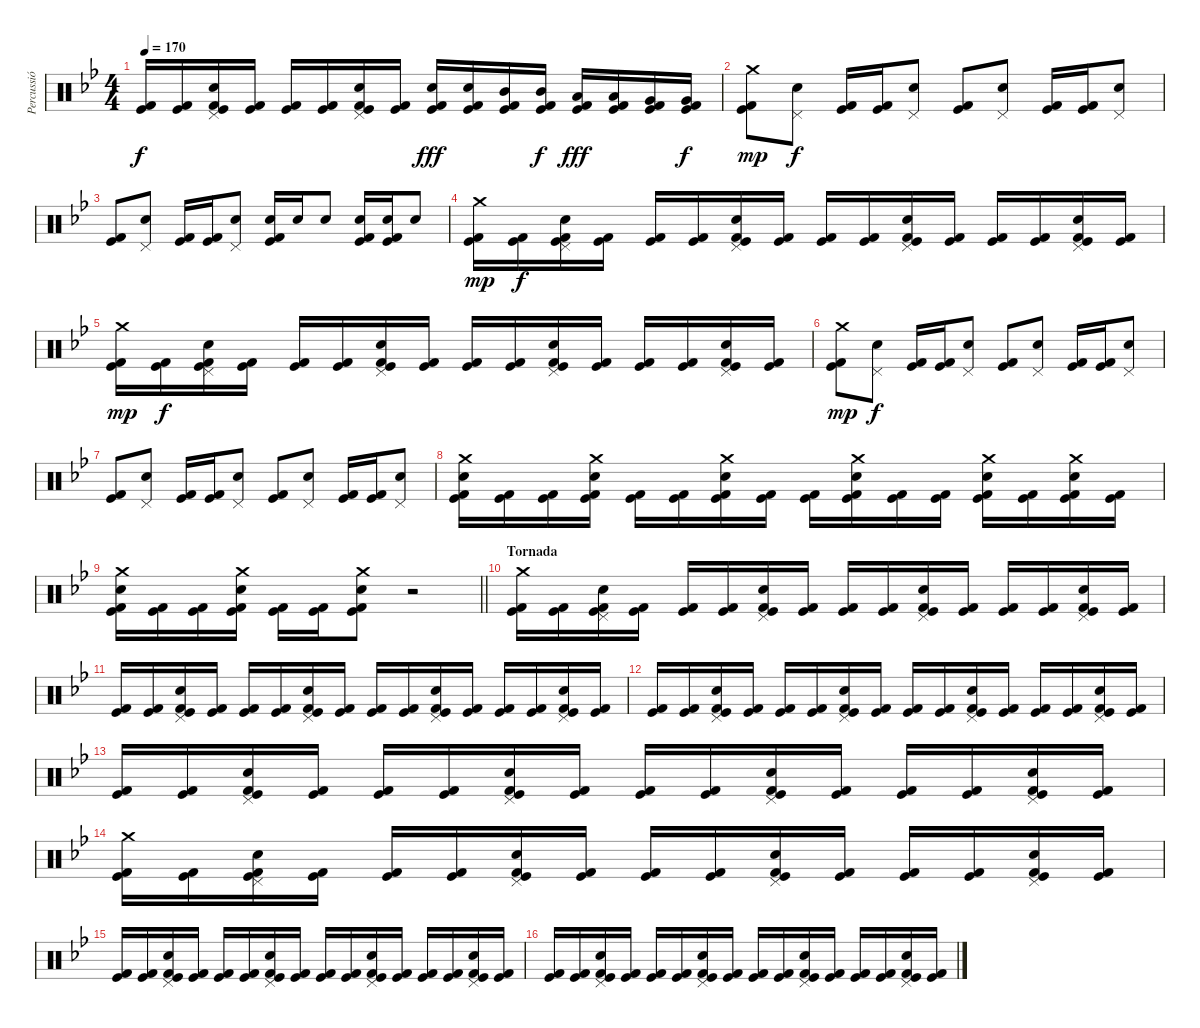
\track ("Percussió" "Percussió") {instrument percussion}
\staff {score}
\articulation defaults
\ts (4 4)
\tempo 170
\clef neutral
\ks gminor
("Kick (hit)" "Kick (hit) 2").16{dy f} ("Kick (hit)" "Kick (hit) 2").16 ("Pedal Hi-Hat (hit)" "Electric Snare (hit)" "Kick (hit)" "Kick (hit) 2").16 ("Kick (hit)" "Kick (hit) 2").16 ("Kick (hit)" "Kick (hit) 2").16 ("Kick (hit)" "Kick (hit) 2").16 ("Pedal Hi-Hat (hit)" "Electric Snare (hit)" "Kick (hit)" "Kick (hit) 2").16 ("Kick (hit)" "Kick (hit) 2").16 ("Electric Snare (hit)" "Kick (hit)" "Kick (hit) 2").16{dy fff} ("Electric Snare (hit)" "Kick (hit)" "Kick (hit) 2").16 ("Mid Tom (hit)" "Kick (hit)" "Kick (hit) 2").16 ("Mid Tom (hit)" "Kick (hit)" "Kick (hit) 2").16{dy f} ("Low Tom (hit)" "Kick (hit)" "Kick (hit) 2").16{dy fff} ("Low Tom (hit)" "Kick (hit)" "Kick (hit) 2").16 ("Very Low Tom (hit)" "Kick (hit)" "Kick (hit) 2").16 ("Very Low Tom (hit)" "Kick (hit)" "Kick (hit) 2").16{dy f} |
("Crash medium (hit)" "Kick (hit)" "Kick (hit) 2").8{dy mp} ("Pedal Hi-Hat (hit)" "Electric Snare (hit)").8{dy f} ("Kick (hit)" "Kick (hit) 2").16 ("Kick (hit)" "Kick (hit) 2").16 ("Pedal Hi-Hat (hit)" "Electric Snare (hit)").8 ("Kick (hit)" "Kick (hit) 2").8 ("Pedal Hi-Hat (hit)" "Electric Snare (hit)").8 ("Kick (hit)" "Kick (hit) 2").16 ("Kick (hit)" "Kick (hit) 2").16 ("Pedal Hi-Hat (hit)" "Electric Snare (hit)").8 |
("Kick (hit)" "Kick (hit) 2").8 ("Pedal Hi-Hat (hit)" "Electric Snare (hit)").8 ("Kick (hit)" "Kick (hit) 2").16 ("Kick (hit)" "Kick (hit) 2").16 ("Pedal Hi-Hat (hit)" "Electric Snare (hit)").8 ("Electric Snare (hit)" "Kick (hit)" "Kick (hit) 2").16 "Electric Snare (hit)".16 "Electric Snare (hit)".8 ("Electric Snare (hit)" "Kick (hit)" "Kick (hit) 2").16 ("Electric Snare (hit)" "Kick (hit)" "Kick (hit) 2").16 "Electric Snare (hit)".8 |
("Crash medium (hit)" "Kick (hit)" "Kick (hit) 2").16{dy mp} ("Kick (hit)" "Kick (hit) 2").16{dy f} ("Pedal Hi-Hat (hit)" "Electric Snare (hit)" "Kick (hit)" "Kick (hit) 2").16 ("Kick (hit)" "Kick (hit) 2").16 ("Kick (hit)" "Kick (hit) 2").16 ("Kick (hit)" "Kick (hit) 2").16 ("Pedal Hi-Hat (hit)" "Electric Snare (hit)" "Kick (hit)" "Kick (hit) 2").16 ("Kick (hit)" "Kick (hit) 2").16 ("Kick (hit)" "Kick (hit) 2").16 ("Kick (hit)" "Kick (hit) 2").16 ("Pedal Hi-Hat (hit)" "Electric Snare (hit)" "Kick (hit)" "Kick (hit) 2").16 ("Kick (hit)" "Kick (hit) 2").16 ("Kick (hit)" "Kick (hit) 2").16 ("Kick (hit)" "Kick (hit) 2").16 ("Pedal Hi-Hat (hit)" "Electric Snare (hit)" "Kick (hit)" "Kick (hit) 2").16 ("Kick (hit)" "Kick (hit) 2").16 |
("Crash medium (hit)" "Kick (hit)" "Kick (hit) 2").16{dy mp} ("Kick (hit)" "Kick (hit) 2").16{dy f} ("Pedal Hi-Hat (hit)" "Electric Snare (hit)" "Kick (hit)" "Kick (hit) 2").16 ("Kick (hit)" "Kick (hit) 2").16 ("Kick (hit)" "Kick (hit) 2").16 ("Kick (hit)" "Kick (hit) 2").16 ("Pedal Hi-Hat (hit)" "Electric Snare (hit)" "Kick (hit)" "Kick (hit) 2").16 ("Kick (hit)" "Kick (hit) 2").16 ("Kick (hit)" "Kick (hit) 2").16 ("Kick (hit)" "Kick (hit) 2").16 ("Pedal Hi-Hat (hit)" "Electric Snare (hit)" "Kick (hit)" "Kick (hit) 2").16 ("Kick (hit)" "Kick (hit) 2").16 ("Kick (hit)" "Kick (hit) 2").16 ("Kick (hit)" "Kick (hit) 2").16 ("Pedal Hi-Hat (hit)" "Electric Snare (hit)" "Kick (hit)" "Kick (hit) 2").16 ("Kick (hit)" "Kick (hit) 2").16 |
("Crash medium (hit)" "Kick (hit)" "Kick (hit) 2").8{dy mp} ("Pedal Hi-Hat (hit)" "Electric Snare (hit)").8{dy f} ("Kick (hit)" "Kick (hit) 2").16 ("Kick (hit)" "Kick (hit) 2").16 ("Pedal Hi-Hat (hit)" "Electric Snare (hit)").8 ("Kick (hit)" "Kick (hit) 2").8 ("Pedal Hi-Hat (hit)" "Electric Snare (hit)").8 ("Kick (hit)" "Kick (hit) 2").16 ("Kick (hit)" "Kick (hit) 2").16 ("Pedal Hi-Hat (hit)" "Electric Snare (hit)").8 |
("Kick (hit)" "Kick (hit) 2").8 ("Pedal Hi-Hat (hit)" "Electric Snare (hit)").8 ("Kick (hit)" "Kick (hit) 2").16 ("Kick (hit)" "Kick (hit) 2").16 ("Pedal Hi-Hat (hit)" "Electric Snare (hit)").8 ("Kick (hit)" "Kick (hit) 2").8 ("Pedal Hi-Hat (hit)" "Electric Snare (hit)").8 ("Kick (hit)" "Kick (hit) 2").16 ("Kick (hit)" "Kick (hit) 2").16 ("Pedal Hi-Hat (hit)" "Electric Snare (hit)").8 |
("Crash medium (hit)" "Electric Snare (hit)" "Kick (hit)" "Kick (hit) 2").16 ("Kick (hit)" "Kick (hit) 2").16 ("Kick (hit)" "Kick (hit) 2").16 ("Crash medium (hit)" "Electric Snare (hit)" "Kick (hit)" "Kick (hit) 2").16 ("Kick (hit)" "Kick (hit) 2").16 ("Kick (hit)" "Kick (hit) 2").16 ("Crash medium (hit)" "Electric Snare (hit)" "Kick (hit)" "Kick (hit) 2").16 ("Kick (hit)" "Kick (hit) 2").16 ("Kick (hit)" "Kick (hit) 2").16 ("Crash medium (hit)" "Electric Snare (hit)" "Kick (hit)" "Kick (hit) 2").16 ("Kick (hit)" "Kick (hit) 2").16 ("Kick (hit)" "Kick (hit) 2").16 ("Crash medium (hit)" "Electric Snare (hit)" "Kick (hit)" "Kick (hit) 2").16 ("Kick (hit)" "Kick (hit) 2").16 ("Crash medium (hit)" "Electric Snare (hit)" "Kick (hit)" "Kick (hit) 2").16 ("Kick (hit)" "Kick (hit) 2").16 |
\barLineRight lightlight
("Crash medium (hit)" "Electric Snare (hit)" "Kick (hit)" "Kick (hit) 2").16 ("Kick (hit)" "Kick (hit) 2").16 ("Kick (hit)" "Kick (hit) 2").16 ("Crash medium (hit)" "Electric Snare (hit)" "Kick (hit)" "Kick (hit) 2").16 ("Kick (hit)" "Kick (hit) 2").16 ("Kick (hit)" "Kick (hit) 2").16 ("Crash medium (hit)" "Electric Snare (hit)" "Kick (hit)" "Kick (hit) 2").8 r.2 |
\section ("" "Tornada")
("Crash medium (hit)" "Kick (hit)" "Kick (hit) 2").16 ("Kick (hit)" "Kick (hit) 2").16 ("Pedal Hi-Hat (hit)" "Electric Snare (hit)" "Kick (hit)" "Kick (hit) 2").16 ("Kick (hit)" "Kick (hit) 2").16 ("Kick (hit)" "Kick (hit) 2").16 ("Kick (hit)" "Kick (hit) 2").16 ("Pedal Hi-Hat (hit)" "Electric Snare (hit)" "Kick (hit)" "Kick (hit) 2").16 ("Kick (hit)" "Kick (hit) 2").16 ("Kick (hit)" "Kick (hit) 2").16 ("Kick (hit)" "Kick (hit) 2").16 ("Pedal Hi-Hat (hit)" "Electric Snare (hit)" "Kick (hit)" "Kick (hit) 2").16 ("Kick (hit)" "Kick (hit) 2").16 ("Kick (hit)" "Kick (hit) 2").16 ("Kick (hit)" "Kick (hit) 2").16 ("Pedal Hi-Hat (hit)" "Electric Snare (hit)" "Kick (hit)" "Kick (hit) 2").16 ("Kick (hit)" "Kick (hit) 2").16 |
("Kick (hit)" "Kick (hit) 2").16 ("Kick (hit)" "Kick (hit) 2").16 ("Pedal Hi-Hat (hit)" "Electric Snare (hit)" "Kick (hit)" "Kick (hit) 2").16 ("Kick (hit)" "Kick (hit) 2").16 ("Kick (hit)" "Kick (hit) 2").16 ("Kick (hit)" "Kick (hit) 2").16 ("Pedal Hi-Hat (hit)" "Electric Snare (hit)" "Kick (hit)" "Kick (hit) 2").16 ("Kick (hit)" "Kick (hit) 2").16 ("Kick (hit)" "Kick (hit) 2").16 ("Kick (hit)" "Kick (hit) 2").16 ("Pedal Hi-Hat (hit)" "Electric Snare (hit)" "Kick (hit)" "Kick (hit) 2").16 ("Kick (hit)" "Kick (hit) 2").16 ("Kick (hit)" "Kick (hit) 2").16 ("Kick (hit)" "Kick (hit) 2").16 ("Pedal Hi-Hat (hit)" "Electric Snare (hit)" "Kick (hit)" "Kick (hit) 2").16 ("Kick (hit)" "Kick (hit) 2").16 |
("Kick (hit)" "Kick (hit) 2").16 ("Kick (hit)" "Kick (hit) 2").16 ("Pedal Hi-Hat (hit)" "Electric Snare (hit)" "Kick (hit)" "Kick (hit) 2").16 ("Kick (hit)" "Kick (hit) 2").16 ("Kick (hit)" "Kick (hit) 2").16 ("Kick (hit)" "Kick (hit) 2").16 ("Pedal Hi-Hat (hit)" "Electric Snare (hit)" "Kick (hit)" "Kick (hit) 2").16 ("Kick (hit)" "Kick (hit) 2").16 ("Kick (hit)" "Kick (hit) 2").16 ("Kick (hit)" "Kick (hit) 2").16 ("Pedal Hi-Hat (hit)" "Electric Snare (hit)" "Kick (hit)" "Kick (hit) 2").16 ("Kick (hit)" "Kick (hit) 2").16 ("Kick (hit)" "Kick (hit) 2").16 ("Kick (hit)" "Kick (hit) 2").16 ("Pedal Hi-Hat (hit)" "Electric Snare (hit)" "Kick (hit)" "Kick (hit) 2").16 ("Kick (hit)" "Kick (hit) 2").16 |
("Kick (hit)" "Kick (hit) 2").16 ("Kick (hit)" "Kick (hit) 2").16 ("Pedal Hi-Hat (hit)" "Electric Snare (hit)" "Kick (hit)" "Kick (hit) 2").16 ("Kick (hit)" "Kick (hit) 2").16 ("Kick (hit)" "Kick (hit) 2").16 ("Kick (hit)" "Kick (hit) 2").16 ("Pedal Hi-Hat (hit)" "Electric Snare (hit)" "Kick (hit)" "Kick (hit) 2").16 ("Kick (hit)" "Kick (hit) 2").16 ("Kick (hit)" "Kick (hit) 2").16 ("Kick (hit)" "Kick (hit) 2").16 ("Pedal Hi-Hat (hit)" "Electric Snare (hit)" "Kick (hit)" "Kick (hit) 2").16 ("Kick (hit)" "Kick (hit) 2").16 ("Kick (hit)" "Kick (hit) 2").16 ("Kick (hit)" "Kick (hit) 2").16 ("Pedal Hi-Hat (hit)" "Electric Snare (hit)" "Kick (hit)" "Kick (hit) 2").16 ("Kick (hit)" "Kick (hit) 2").16 |
("Crash medium (hit)" "Kick (hit)" "Kick (hit) 2").16 ("Kick (hit)" "Kick (hit) 2").16 ("Pedal Hi-Hat (hit)" "Electric Snare (hit)" "Kick (hit)" "Kick (hit) 2").16 ("Kick (hit)" "Kick (hit) 2").16 ("Kick (hit)" "Kick (hit) 2").16 ("Kick (hit)" "Kick (hit) 2").16 ("Pedal Hi-Hat (hit)" "Electric Snare (hit)" "Kick (hit)" "Kick (hit) 2").16 ("Kick (hit)" "Kick (hit) 2").16 ("Kick (hit)" "Kick (hit) 2").16 ("Kick (hit)" "Kick (hit) 2").16 ("Pedal Hi-Hat (hit)" "Electric Snare (hit)" "Kick (hit)" "Kick (hit) 2").16 ("Kick (hit)" "Kick (hit) 2").16 ("Kick (hit)" "Kick (hit) 2").16 ("Kick (hit)" "Kick (hit) 2").16 ("Pedal Hi-Hat (hit)" "Electric Snare (hit)" "Kick (hit)" "Kick (hit) 2").16 ("Kick (hit)" "Kick (hit) 2").16 |
("Kick (hit)" "Kick (hit) 2").16 ("Kick (hit)" "Kick (hit) 2").16 ("Pedal Hi-Hat (hit)" "Electric Snare (hit)" "Kick (hit)" "Kick (hit) 2").16 ("Kick (hit)" "Kick (hit) 2").16 ("Kick (hit)" "Kick (hit) 2").16 ("Kick (hit)" "Kick (hit) 2").16 ("Pedal Hi-Hat (hit)" "Electric Snare (hit)" "Kick (hit)" "Kick (hit) 2").16 ("Kick (hit)" "Kick (hit) 2").16 ("Kick (hit)" "Kick (hit) 2").16 ("Kick (hit)" "Kick (hit) 2").16 ("Pedal Hi-Hat (hit)" "Electric Snare (hit)" "Kick (hit)" "Kick (hit) 2").16 ("Kick (hit)" "Kick (hit) 2").16 ("Kick (hit)" "Kick (hit) 2").16 ("Kick (hit)" "Kick (hit) 2").16 ("Pedal Hi-Hat (hit)" "Electric Snare (hit)" "Kick (hit)" "Kick (hit) 2").16 ("Kick (hit)" "Kick (hit) 2").16 |
("Kick (hit)" "Kick (hit) 2").16 ("Kick (hit)" "Kick (hit) 2").16 ("Pedal Hi-Hat (hit)" "Electric Snare (hit)" "Kick (hit)" "Kick (hit) 2").16 ("Kick (hit)" "Kick (hit) 2").16 ("Kick (hit)" "Kick (hit) 2").16 ("Kick (hit)" "Kick (hit) 2").16 ("Pedal Hi-Hat (hit)" "Electric Snare (hit)" "Kick (hit)" "Kick (hit) 2").16 ("Kick (hit)" "Kick (hit) 2").16 ("Kick (hit)" "Kick (hit) 2").16 ("Kick (hit)" "Kick (hit) 2").16 ("Pedal Hi-Hat (hit)" "Electric Snare (hit)" "Kick (hit)" "Kick (hit) 2").16 ("Kick (hit)" "Kick (hit) 2").16 ("Kick (hit)" "Kick (hit) 2").16 ("Kick (hit)" "Kick (hit) 2").16 ("Pedal Hi-Hat (hit)" "Electric Snare (hit)" "Kick (hit)" "Kick (hit) 2").16 ("Kick (hit)" "Kick (hit) 2").16
